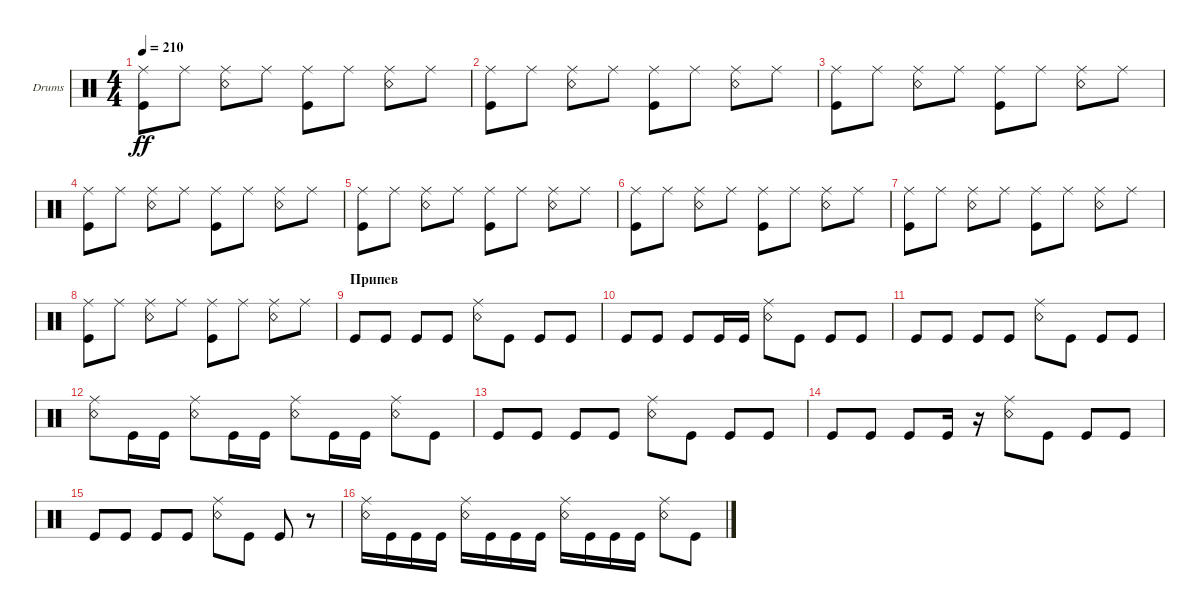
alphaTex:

\defaultSystemsLayout 4
\bracketExtendMode groupsimilarinstruments
\firstSystemTrackNameOrientation horizontal
\otherSystemsTrackNameOrientation horizontal
\track ("Drumkit" "Drums") {instrument percussion}
\staff {score}
\articulation defaults
\ts (4 4)
\tempo 210
\clef neutral
\ks c
("Kick (hit)" "Ride (middle)").8{dy ff} "Ride (middle)".8 ("Snare (rim shot)" "Ride (middle)").8 "Ride (middle)".8 ("Ride (middle)" "Kick (hit)").8 "Ride (middle)".8 ("Ride (middle)" "Snare (rim shot)").8 "Ride (middle)".8 |
("Kick (hit)" "Ride (middle)").8 "Ride (middle)".8 ("Snare (rim shot)" "Ride (middle)").8 "Ride (middle)".8 ("Ride (middle)" "Kick (hit)").8 "Ride (middle)".8 ("Ride (middle)" "Snare (rim shot)").8 "Ride (middle)".8 |
("Kick (hit)" "Ride (middle)").8 "Ride (middle)".8 ("Snare (rim shot)" "Ride (middle)").8 "Ride (middle)".8 ("Ride (middle)" "Kick (hit)").8 "Ride (middle)".8 ("Ride (middle)" "Snare (rim shot)").8 "Ride (middle)".8 |
("Kick (hit)" "Ride (middle)").8 "Ride (middle)".8 ("Snare (rim shot)" "Ride (middle)").8 "Ride (middle)".8 ("Ride (middle)" "Kick (hit)").8 "Ride (middle)".8 ("Ride (middle)" "Snare (rim shot)").8 "Ride (middle)".8 |
("Kick (hit)" "Ride (middle)").8 "Ride (middle)".8 ("Snare (rim shot)" "Ride (middle)").8 "Ride (middle)".8 ("Ride (middle)" "Kick (hit)").8 "Ride (middle)".8 ("Ride (middle)" "Snare (rim shot)").8 "Ride (middle)".8 |
("Kick (hit)" "Ride (middle)").8 "Ride (middle)".8 ("Snare (rim shot)" "Ride (middle)").8 "Ride (middle)".8 ("Ride (middle)" "Kick (hit)").8 "Ride (middle)".8 ("Ride (middle)" "Snare (rim shot)").8 "Ride (middle)".8 |
("Kick (hit)" "Ride (middle)").8 "Ride (middle)".8 ("Snare (rim shot)" "Ride (middle)").8 "Ride (middle)".8 ("Ride (middle)" "Kick (hit)").8 "Ride (middle)".8 ("Ride (middle)" "Snare (rim shot)").8 "Ride (middle)".8 |
("Kick (hit)" "Ride (middle)").8 "Ride (middle)".8 ("Snare (rim shot)" "Ride (middle)").8 "Ride (middle)".8 ("Ride (middle)" "Kick (hit)").8 "Ride (middle)".8 ("Ride (middle)" "Snare (rim shot)").8 "Ride (middle)".8 |
\section ("" "Припев")
"Kick (hit)".8 "Kick (hit)".8 "Kick (hit)".8 "Kick (hit)".8 ("Snare (rim shot)" "Ride (middle)").8 "Kick (hit)".8 "Kick (hit)".8 "Kick (hit)".8 |
"Kick (hit)".8 "Kick (hit)".8 "Kick (hit)".8 "Kick (hit)".16 "Kick (hit)".16 ("Snare (rim shot)" "Ride (middle)").8 "Kick (hit)".8 "Kick (hit)".8 "Kick (hit)".8 |
"Kick (hit)".8 "Kick (hit)".8 "Kick (hit)".8 "Kick (hit)".8 ("Snare (rim shot)" "Ride (middle)").8 "Kick (hit)".8 "Kick (hit)".8 "Kick (hit)".8 |
("Snare (rim shot)" "Ride (middle)").8 "Kick (hit)".16 "Kick (hit)".16 ("Snare (rim shot)" "Ride (middle)").8 "Kick (hit)".16 "Kick (hit)".16 ("Snare (rim shot)" "Ride (middle)").8 "Kick (hit)".16 "Kick (hit)".16 ("Snare (rim shot)" "Ride (middle)").8 "Kick (hit)".8 |
"Kick (hit)".8 "Kick (hit)".8 "Kick (hit)".8 "Kick (hit)".8 ("Snare (rim shot)" "Ride (middle)").8 "Kick (hit)".8 "Kick (hit)".8 "Kick (hit)".8 |
"Kick (hit)".8 "Kick (hit)".8 "Kick (hit)".8 "Kick (hit)".16 r.16 ("Snare (rim shot)" "Ride (middle)").8 "Kick (hit)".8 "Kick (hit)".8 "Kick (hit)".8 |
"Kick (hit)".8 "Kick (hit)".8 "Kick (hit)".8 "Kick (hit)".8 ("Snare (rim shot)" "Ride (middle)").8 "Kick (hit)".8 "Kick (hit)".8 r.8 |
("Snare (rim shot)" "Ride (middle)").16 "Kick (hit)".16 "Kick (hit)".16 "Kick (hit)".16 ("Snare (rim shot)" "Ride (middle)").16 "Kick (hit)".16 "Kick (hit)".16 "Kick (hit)".16 ("Snare (rim shot)" "Ride (middle)").16 "Kick (hit)".16 "Kick (hit)".16 "Kick (hit)".16 ("Snare (rim shot)" "Ride (middle)").8 "Kick (hit)".8
